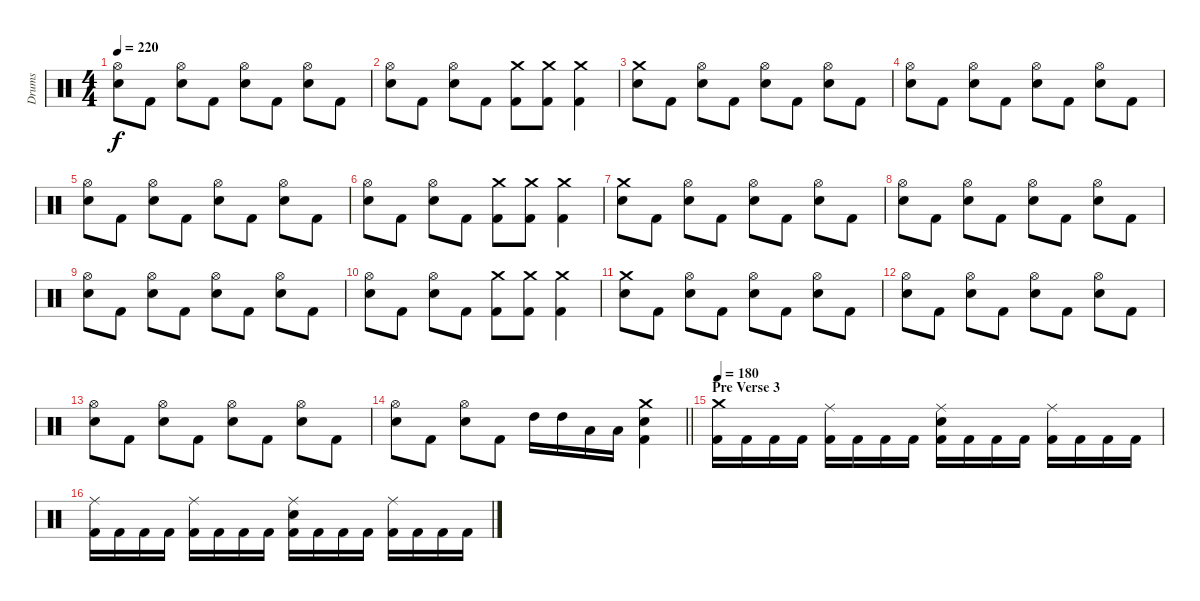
\track ("Drums" "Drums") {instrument percussion}
\staff {score}
\articulation defaults
\ts (4 4)
\tempo 220
\clef neutral
\ks c
("Hi-Hat (open)" "Electric Snare (hit)").8{dy f} "Kick (hit) 2".8 ("Hi-Hat (open)" "Electric Snare (hit)").8 "Kick (hit) 2".8 ("Hi-Hat (open)" "Electric Snare (hit)").8 "Kick (hit) 2".8 ("Hi-Hat (open)" "Electric Snare (hit)").8 "Kick (hit) 2".8 |
("Hi-Hat (open)" "Electric Snare (hit)").8 "Kick (hit) 2".8 ("Hi-Hat (open)" "Electric Snare (hit)").8 "Kick (hit) 2".8 ("Crash medium (hit)" "Kick (hit) 2").8 ("Crash medium (hit)" "Kick (hit) 2").8 ("Crash medium (hit)" "Kick (hit) 2").4 |
("Crash medium (hit)" "Electric Snare (hit)").8 "Kick (hit) 2".8 ("Hi-Hat (open)" "Electric Snare (hit)").8 "Kick (hit) 2".8 ("Hi-Hat (open)" "Electric Snare (hit)").8 "Kick (hit) 2".8 ("Hi-Hat (open)" "Electric Snare (hit)").8 "Kick (hit) 2".8 |
("Hi-Hat (open)" "Electric Snare (hit)").8 "Kick (hit) 2".8 ("Hi-Hat (open)" "Electric Snare (hit)").8 "Kick (hit) 2".8 ("Hi-Hat (open)" "Electric Snare (hit)").8 "Kick (hit) 2".8 ("Hi-Hat (open)" "Electric Snare (hit)").8 "Kick (hit) 2".8 |
("Hi-Hat (open)" "Electric Snare (hit)").8 "Kick (hit) 2".8 ("Hi-Hat (open)" "Electric Snare (hit)").8 "Kick (hit) 2".8 ("Hi-Hat (open)" "Electric Snare (hit)").8 "Kick (hit) 2".8 ("Hi-Hat (open)" "Electric Snare (hit)").8 "Kick (hit) 2".8 |
("Hi-Hat (open)" "Electric Snare (hit)").8 "Kick (hit) 2".8 ("Hi-Hat (open)" "Electric Snare (hit)").8 "Kick (hit) 2".8 ("Crash medium (hit)" "Kick (hit) 2").8 ("Crash medium (hit)" "Kick (hit) 2").8 ("Crash medium (hit)" "Kick (hit) 2").4 |
("Crash medium (hit)" "Electric Snare (hit)").8 "Kick (hit) 2".8 ("Hi-Hat (open)" "Electric Snare (hit)").8 "Kick (hit) 2".8 ("Hi-Hat (open)" "Electric Snare (hit)").8 "Kick (hit) 2".8 ("Hi-Hat (open)" "Electric Snare (hit)").8 "Kick (hit) 2".8 |
("Hi-Hat (open)" "Electric Snare (hit)").8 "Kick (hit) 2".8 ("Hi-Hat (open)" "Electric Snare (hit)").8 "Kick (hit) 2".8 ("Hi-Hat (open)" "Electric Snare (hit)").8 "Kick (hit) 2".8 ("Hi-Hat (open)" "Electric Snare (hit)").8 "Kick (hit) 2".8 |
("Hi-Hat (open)" "Electric Snare (hit)").8 "Kick (hit) 2".8 ("Hi-Hat (open)" "Electric Snare (hit)").8 "Kick (hit) 2".8 ("Hi-Hat (open)" "Electric Snare (hit)").8 "Kick (hit) 2".8 ("Hi-Hat (open)" "Electric Snare (hit)").8 "Kick (hit) 2".8 |
("Hi-Hat (open)" "Electric Snare (hit)").8 "Kick (hit) 2".8 ("Hi-Hat (open)" "Electric Snare (hit)").8 "Kick (hit) 2".8 ("Crash medium (hit)" "Kick (hit) 2").8 ("Crash medium (hit)" "Kick (hit) 2").8 ("Crash medium (hit)" "Kick (hit) 2").4 |
("Crash medium (hit)" "Electric Snare (hit)").8 "Kick (hit) 2".8 ("Hi-Hat (open)" "Electric Snare (hit)").8 "Kick (hit) 2".8 ("Hi-Hat (open)" "Electric Snare (hit)").8 "Kick (hit) 2".8 ("Hi-Hat (open)" "Electric Snare (hit)").8 "Kick (hit) 2".8 |
("Hi-Hat (open)" "Electric Snare (hit)").8 "Kick (hit) 2".8 ("Hi-Hat (open)" "Electric Snare (hit)").8 "Kick (hit) 2".8 ("Hi-Hat (open)" "Electric Snare (hit)").8 "Kick (hit) 2".8 ("Hi-Hat (open)" "Electric Snare (hit)").8 "Kick (hit) 2".8 |
("Hi-Hat (open)" "Electric Snare (hit)").8 "Kick (hit) 2".8 ("Hi-Hat (open)" "Electric Snare (hit)").8 "Kick (hit) 2".8 ("Hi-Hat (open)" "Electric Snare (hit)").8 "Kick (hit) 2".8 ("Hi-Hat (open)" "Electric Snare (hit)").8 "Kick (hit) 2".8 |
\barLineRight lightlight
("Hi-Hat (open)" "Electric Snare (hit)").8 "Kick (hit) 2".8 ("Hi-Hat (open)" "Electric Snare (hit)").8 "Kick (hit) 2".8 "High Tom (hit)".16 "High Tom (hit)".16 "Low Tom (hit)".16 "Low Tom (hit)".16 ("Crash medium (hit)" "Electric Snare (hit)" "Kick (hit) 2").4 |
\section ("" "Pre Verse 3 ")
\tempo 180
("Crash medium (hit)" "Kick (hit) 2").16 "Kick (hit) 2".16 "Kick (hit) 2".16 "Kick (hit) 2".16 ("Ride (middle)" "Kick (hit) 2").16 "Kick (hit) 2".16 "Kick (hit) 2".16 "Kick (hit) 2".16 ("Ride (middle)" "Electric Snare (hit)" "Kick (hit) 2").16 "Kick (hit) 2".16 "Kick (hit) 2".16 "Kick (hit) 2".16 ("Ride (middle)" "Kick (hit) 2").16 "Kick (hit) 2".16 "Kick (hit) 2".16 "Kick (hit) 2".16 |
("Ride (middle)" "Kick (hit) 2").16 "Kick (hit) 2".16 "Kick (hit) 2".16 "Kick (hit) 2".16 ("Ride (middle)" "Kick (hit) 2").16 "Kick (hit) 2".16 "Kick (hit) 2".16 "Kick (hit) 2".16 ("Ride (middle)" "Electric Snare (hit)" "Kick (hit) 2").16 "Kick (hit) 2".16 "Kick (hit) 2".16 "Kick (hit) 2".16 ("Ride (middle)" "Kick (hit) 2").16 "Kick (hit) 2".16 "Kick (hit) 2".16 "Kick (hit) 2".16
